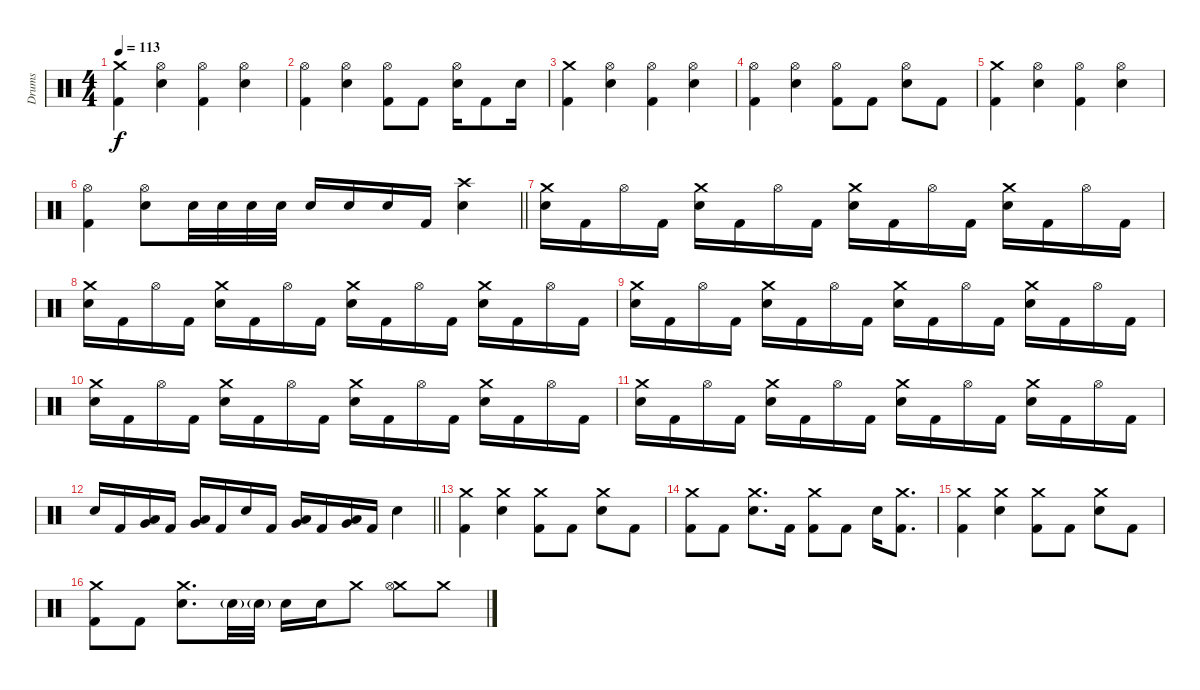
\track ("Drums" "Drums") {instrument percussion}
\staff {score}
\articulation defaults
\ts (4 4)
\tempo 113
\clef neutral
\ks c
("Crash medium (hit)" "Kick (hit) 2").4{dy f} ("Hi-Hat (open)" "Electric Snare (hit)").4 ("Hi-Hat (open)" "Kick (hit) 2").4 ("Hi-Hat (open)" "Electric Snare (hit)").4 |
("Hi-Hat (open)" "Kick (hit) 2").4 ("Hi-Hat (open)" "Electric Snare (hit)").4 ("Hi-Hat (open)" "Kick (hit) 2").8 "Kick (hit) 2".8 ("Hi-Hat (open)" "Electric Snare (hit)").16 "Kick (hit) 2".8 "Electric Snare (hit)".16 |
("Crash medium (hit)" "Kick (hit) 2").4 ("Hi-Hat (open)" "Electric Snare (hit)").4 ("Hi-Hat (open)" "Kick (hit) 2").4 ("Hi-Hat (open)" "Electric Snare (hit)").4 |
("Hi-Hat (open)" "Kick (hit) 2").4 ("Hi-Hat (open)" "Electric Snare (hit)").4 ("Hi-Hat (open)" "Kick (hit) 2").8 "Kick (hit) 2".8 ("Hi-Hat (open)" "Electric Snare (hit)").8 "Kick (hit) 2".8 |
("Crash medium (hit)" "Kick (hit) 2").4 ("Hi-Hat (open)" "Electric Snare (hit)").4 ("Hi-Hat (open)" "Kick (hit) 2").4 ("Hi-Hat (open)" "Electric Snare (hit)").4 |
\barLineRight lightlight
("Hi-Hat (open)" "Kick (hit) 2").4 ("Hi-Hat (open)" "Electric Snare (hit)").8 "Electric Snare (hit)".32 "Electric Snare (hit)".32 "Electric Snare (hit)".32 "Electric Snare (hit)".32 "Electric Snare (hit)".16 "Electric Snare (hit)".16 "Electric Snare (hit)".16 "Kick (hit) 2".16 ("Crash high (hit)" "Electric Snare (hit)").4 |
\section ("" "")
("Crash medium (hit)" "Electric Snare (hit)").16 "Kick (hit) 2".16 "Hi-Hat (open)".16 "Kick (hit) 2".16 ("Crash medium (hit)" "Electric Snare (hit)").16 "Kick (hit) 2".16 "Hi-Hat (open)".16 "Kick (hit) 2".16 ("Crash medium (hit)" "Electric Snare (hit)").16 "Kick (hit) 2".16 "Hi-Hat (open)".16 "Kick (hit) 2".16 ("Crash medium (hit)" "Electric Snare (hit)").16 "Kick (hit) 2".16 "Hi-Hat (open)".16 "Kick (hit) 2".16 |
("Crash medium (hit)" "Electric Snare (hit)").16 "Kick (hit) 2".16 "Hi-Hat (open)".16 "Kick (hit) 2".16 ("Crash medium (hit)" "Electric Snare (hit)").16 "Kick (hit) 2".16 "Hi-Hat (open)".16 "Kick (hit) 2".16 ("Crash medium (hit)" "Electric Snare (hit)").16 "Kick (hit) 2".16 "Hi-Hat (open)".16 "Kick (hit) 2".16 ("Crash medium (hit)" "Electric Snare (hit)").16 "Kick (hit) 2".16 "Hi-Hat (open)".16 "Kick (hit) 2".16 |
("Crash medium (hit)" "Electric Snare (hit)").16 "Kick (hit) 2".16 "Hi-Hat (open)".16 "Kick (hit) 2".16 ("Crash medium (hit)" "Electric Snare (hit)").16 "Kick (hit) 2".16 "Hi-Hat (open)".16 "Kick (hit) 2".16 ("Crash medium (hit)" "Electric Snare (hit)").16 "Kick (hit) 2".16 "Hi-Hat (open)".16 "Kick (hit) 2".16 ("Crash medium (hit)" "Electric Snare (hit)").16 "Kick (hit) 2".16 "Hi-Hat (open)".16 "Kick (hit) 2".16 |
("Crash medium (hit)" "Electric Snare (hit)").16 "Kick (hit) 2".16 "Hi-Hat (open)".16 "Kick (hit) 2".16 ("Crash medium (hit)" "Electric Snare (hit)").16 "Kick (hit) 2".16 "Hi-Hat (open)".16 "Kick (hit) 2".16 ("Crash medium (hit)" "Electric Snare (hit)").16 "Kick (hit) 2".16 "Hi-Hat (open)".16 "Kick (hit) 2".16 ("Crash medium (hit)" "Electric Snare (hit)").16 "Kick (hit) 2".16 "Hi-Hat (open)".16 "Kick (hit) 2".16 |
("Crash medium (hit)" "Electric Snare (hit)").16 "Kick (hit) 2".16 "Hi-Hat (open)".16 "Kick (hit) 2".16 ("Crash medium (hit)" "Electric Snare (hit)").16 "Kick (hit) 2".16 "Hi-Hat (open)".16 "Kick (hit) 2".16 ("Crash medium (hit)" "Electric Snare (hit)").16 "Kick (hit) 2".16 "Hi-Hat (open)".16 "Kick (hit) 2".16 ("Crash medium (hit)" "Electric Snare (hit)").16 "Kick (hit) 2".16 "Hi-Hat (open)".16 "Kick (hit) 2".16 |
\barLineRight lightlight "Electric Snare (hit)".16 "Kick (hit) 2".16
("Very Low Tom (hit)" "Low Tom (hit)").16 "Kick (hit) 2".16 ("Very Low Tom (hit)" "Low Tom (hit)").16 "Kick (hit) 2".16 "Electric Snare (hit)".16 "Kick (hit) 2".16 ("Very Low Tom (hit)" "Low Tom (hit)").16 "Kick (hit) 2".16 ("Very Low Tom (hit)" "Low Tom (hit)").16 "Kick (hit) 2".16 "Electric Snare (hit)".4 |
\section ("" "")
("Crash medium (hit)" "Kick (hit) 2").4 ("Crash medium (hit)" "Electric Snare (hit)").4 ("Crash medium (hit)" "Kick (hit) 2").8 "Kick (hit) 2".8 ("Crash medium (hit)" "Electric Snare (hit)").8 "Kick (hit) 2".8 |
("Crash medium (hit)" "Kick (hit) 2").8 "Kick (hit) 2".8 ("Crash medium (hit)" "Electric Snare (hit)").8{d} "Kick (hit) 2".16 ("Crash medium (hit)" "Kick (hit) 2").8 "Kick (hit) 2".8 "Electric Snare (hit)".16 ("Crash medium (hit)" "Kick (hit) 2").8{d} |
("Crash medium (hit)" "Kick (hit) 2").4 ("Crash medium (hit)" "Electric Snare (hit)").4 ("Crash medium (hit)" "Kick (hit) 2").8 "Kick (hit) 2".8 ("Crash medium (hit)" "Electric Snare (hit)").8 "Kick (hit) 2".8 |
("Crash medium (hit)" "Kick (hit) 2").8 "Kick (hit) 2".8 ("Crash medium (hit)" "Electric Snare (hit)").8{d} "Electric Snare (hit)"{g}.32 "Electric Snare (hit)"{g}.32 "Electric Snare (hit)".16 "Electric Snare (hit)".16 "Crash medium (hit)".8 ("Crash medium (hit)" "Hi-Hat (open)").8 "Crash medium (hit)".8
